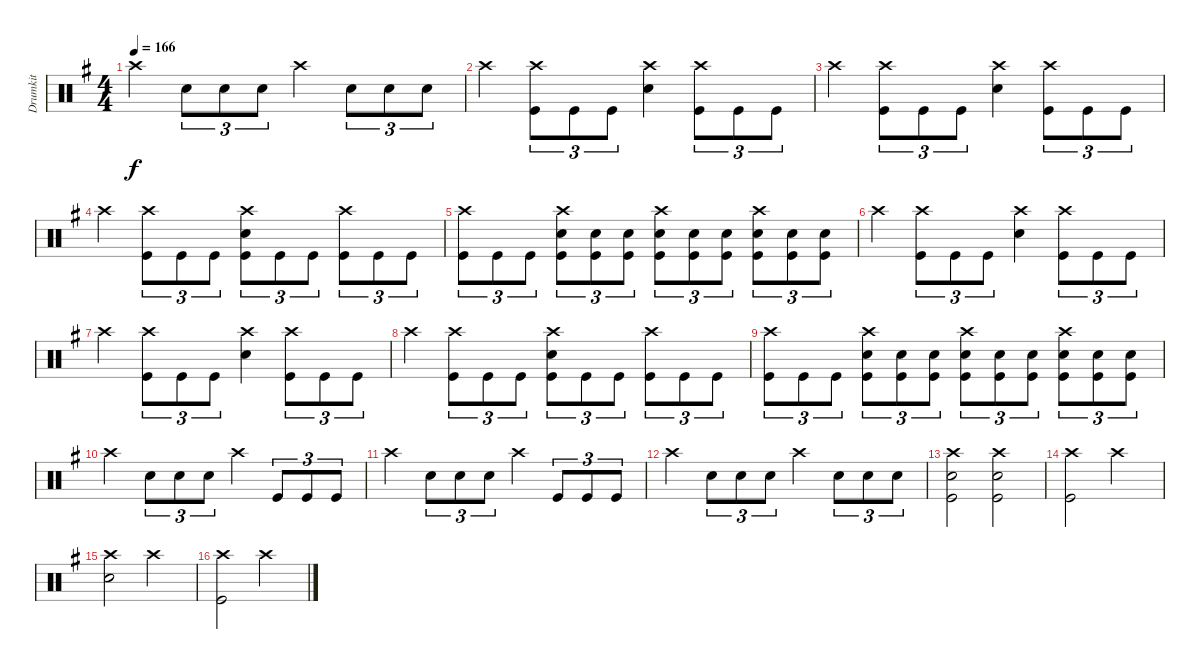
\track ("Drumkit" "Drumkit") {instrument percussion}
\staff {score}
\articulation defaults
\ts (4 4)
\tempo 166
\clef neutral
\ks g "Crash high (hit)".4{dy f} "Snare (hit) 2".8{tu (3 2)} "Snare (hit) 2".8{tu (3 2)} "Snare (hit) 2".8{tu (3 2)} "Crash high (hit)".4 "Snare (hit) 2".8{tu (3 2)} "Snare (hit) 2".8{tu (3 2)} "Snare (hit) 2".8{tu (3 2)}
|
"Crash high (hit)".4 ("Crash high (hit)" "Kick (hit)").8{tu (3 2)} "Kick (hit)".8{tu (3 2)} "Kick (hit)".8{tu (3 2)} ("Crash high (hit)" "Snare (hit) 2").4 ("Crash high (hit)" "Kick (hit)").8{tu (3 2)} "Kick (hit)".8{tu (3 2)} "Kick (hit)".8{tu (3 2)} |
"Crash high (hit)".4 ("Crash high (hit)" "Kick (hit)").8{tu (3 2)} "Kick (hit)".8{tu (3 2)} "Kick (hit)".8{tu (3 2)} ("Crash high (hit)" "Snare (hit) 2").4 ("Crash high (hit)" "Kick (hit)").8{tu (3 2)} "Kick (hit)".8{tu (3 2)} "Kick (hit)".8{tu (3 2)} |
"Crash high (hit)".4 ("Crash high (hit)" "Kick (hit)").8{tu (3 2)} "Kick (hit)".8{tu (3 2)} "Kick (hit)".8{tu (3 2)} ("Crash high (hit)" "Snare (hit) 2" "Kick (hit)").8{tu (3 2)} "Kick (hit)".8{tu (3 2)} "Kick (hit)".8{tu (3 2)} ("Crash high (hit)" "Kick (hit)").8{tu (3 2)} "Kick (hit)".8{tu (3 2)} "Kick (hit)".8{tu (3 2)} |
("Crash high (hit)" "Kick (hit)").8{tu (3 2)} "Kick (hit)".8{tu (3 2)} "Kick (hit)".8{tu (3 2)} ("Crash high (hit)" "Snare (hit) 2" "Kick (hit)").8{tu (3 2)} ("Snare (hit) 2" "Kick (hit)").8{tu (3 2)} ("Snare (hit) 2" "Kick (hit)").8{tu (3 2)} ("Crash high (hit)" "Snare (hit) 2" "Kick (hit)").8{tu (3 2)} ("Snare (hit) 2" "Kick (hit)").8{tu (3 2)} ("Snare (hit) 2" "Kick (hit)").8{tu (3 2)} ("Crash high (hit)" "Snare (hit) 2" "Kick (hit)").8{tu (3 2)} ("Snare (hit) 2" "Kick (hit)").8{tu (3 2)} ("Snare (hit) 2" "Kick (hit)").8{tu (3 2)} |
"Crash high (hit)".4 ("Crash high (hit)" "Kick (hit)").8{tu (3 2)} "Kick (hit)".8{tu (3 2)} "Kick (hit)".8{tu (3 2)} ("Crash high (hit)" "Snare (hit) 2").4 ("Crash high (hit)" "Kick (hit)").8{tu (3 2)} "Kick (hit)".8{tu (3 2)} "Kick (hit)".8{tu (3 2)} |
"Crash high (hit)".4 ("Crash high (hit)" "Kick (hit)").8{tu (3 2)} "Kick (hit)".8{tu (3 2)} "Kick (hit)".8{tu (3 2)} ("Crash high (hit)" "Snare (hit) 2").4 ("Crash high (hit)" "Kick (hit)").8{tu (3 2)} "Kick (hit)".8{tu (3 2)} "Kick (hit)".8{tu (3 2)} |
"Crash high (hit)".4 ("Crash high (hit)" "Kick (hit)").8{tu (3 2)} "Kick (hit)".8{tu (3 2)} "Kick (hit)".8{tu (3 2)} ("Crash high (hit)" "Snare (hit) 2" "Kick (hit)").8{tu (3 2)} "Kick (hit)".8{tu (3 2)} "Kick (hit)".8{tu (3 2)} ("Crash high (hit)" "Kick (hit)").8{tu (3 2)} "Kick (hit)".8{tu (3 2)} "Kick (hit)".8{tu (3 2)} |
("Crash high (hit)" "Kick (hit)").8{tu (3 2)} "Kick (hit)".8{tu (3 2)} "Kick (hit)".8{tu (3 2)} ("Crash high (hit)" "Snare (hit) 2" "Kick (hit)").8{tu (3 2)} ("Snare (hit) 2" "Kick (hit)").8{tu (3 2)} ("Snare (hit) 2" "Kick (hit)").8{tu (3 2)} ("Crash high (hit)" "Snare (hit) 2" "Kick (hit)").8{tu (3 2)} ("Snare (hit) 2" "Kick (hit)").8{tu (3 2)} ("Snare (hit) 2" "Kick (hit)").8{tu (3 2)} ("Crash high (hit)" "Snare (hit) 2" "Kick (hit)").8{tu (3 2)} ("Snare (hit) 2" "Kick (hit)").8{tu (3 2)} ("Snare (hit) 2" "Kick (hit)").8{tu (3 2)} |
"Crash high (hit)".4 "Snare (hit) 2".8{tu (3 2)} "Snare (hit) 2".8{tu (3 2)} "Snare (hit) 2".8{tu (3 2)} "Crash high (hit)".4 "Kick (hit)".8{tu (3 2)} "Kick (hit)".8{tu (3 2)} "Kick (hit)".8{tu (3 2)} |
"Crash high (hit)".4 "Snare (hit) 2".8{tu (3 2)} "Snare (hit) 2".8{tu (3 2)} "Snare (hit) 2".8{tu (3 2)} "Crash high (hit)".4 "Kick (hit)".8{tu (3 2)} "Kick (hit)".8{tu (3 2)} "Kick (hit)".8{tu (3 2)} |
"Crash high (hit)".4 "Snare (hit) 2".8{tu (3 2)} "Snare (hit) 2".8{tu (3 2)} "Snare (hit) 2".8{tu (3 2)} "Crash high (hit)".4 "Snare (hit) 2".8{tu (3 2)} "Snare (hit) 2".8{tu (3 2)} "Snare (hit) 2".8{tu (3 2)} |
("Crash high (hit)" "Snare (hit) 2" "Kick (hit)").2 ("Crash high (hit)" "Snare (hit) 2" "Kick (hit)").2 |
("Crash high (hit)" "Kick (hit)").2 "Crash high (hit)".2 |
("Crash high (hit)" "Snare (hit) 2").2 "Crash high (hit)".2 |
("Crash high (hit)" "Kick (hit)").2 "Crash high (hit)".2
